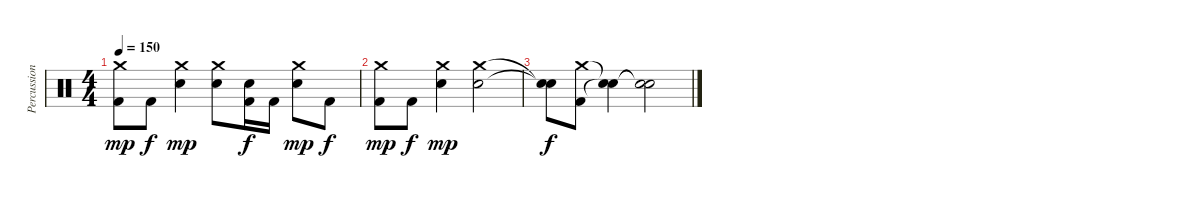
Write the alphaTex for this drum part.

\track ("Percussions" "Percussion") {instrument percussion}
\staff {score}
\articulation defaults
\ts (4 4)
\tempo 150
\clef neutral
\ks c
("Kick (hit) 2" "Crash medium (hit)").8{dy mp} "Kick (hit) 2".8{dy f} ("Electric Snare (hit)" "Crash medium (hit)").4{dy mp} ("Electric Snare (hit)" "Crash medium (hit)").8 ("Kick (hit) 2" "Electric Snare (hit)").16{dy f} "Kick (hit) 2".16 ("Electric Snare (hit)" "Crash medium (hit)").8{dy mp} "Kick (hit) 2".8{dy f} |
("Kick (hit) 2" "Crash medium (hit)").8{dy mp} "Kick (hit) 2".8{dy f} ("Electric Snare (hit)" "Crash medium (hit)").4{dy mp} ("Electric Snare (hit)" "Crash medium (hit)").2 |
("Snare (hit)"{t} "Snare (hit)"{t}).8{dy f} ("Kick (hit) 2" "Crash medium (hit)").8 ("Snare (hit)"{t} "Snare (hit)"{t}).4 ("Snare (hit)"{t} "Snare (hit)"{t}).2
